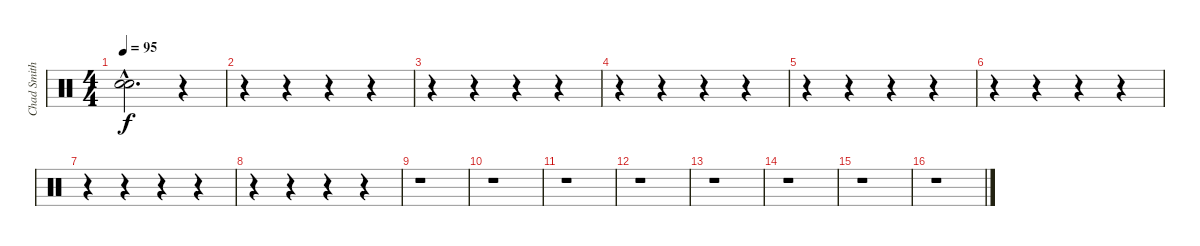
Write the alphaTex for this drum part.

\track ("Chad Smith" "Chad Smith") {instrument percussion}
\staff {score}
\articulation defaults
\ts (4 4)
\tempo 95
\clef neutral
\ks c
("Snare (hit)"{hac t} "Snare (hit)"{hac t}).2{d dy f} r.4 |
r.4 r.4 r.4 r.4 |
r.4 r.4 r.4 r.4 |
r.4 r.4 r.4 r.4 |
r.4 r.4 r.4 r.4 |
r.4 r.4 r.4 r.4 |
r.4 r.4 r.4 r.4 |
r.4 r.4 r.4 r.4 |
r.1 |
r.1 |
r.1 |
r.1 |
r.1 |
r.1 |
r.1 |
r.1
